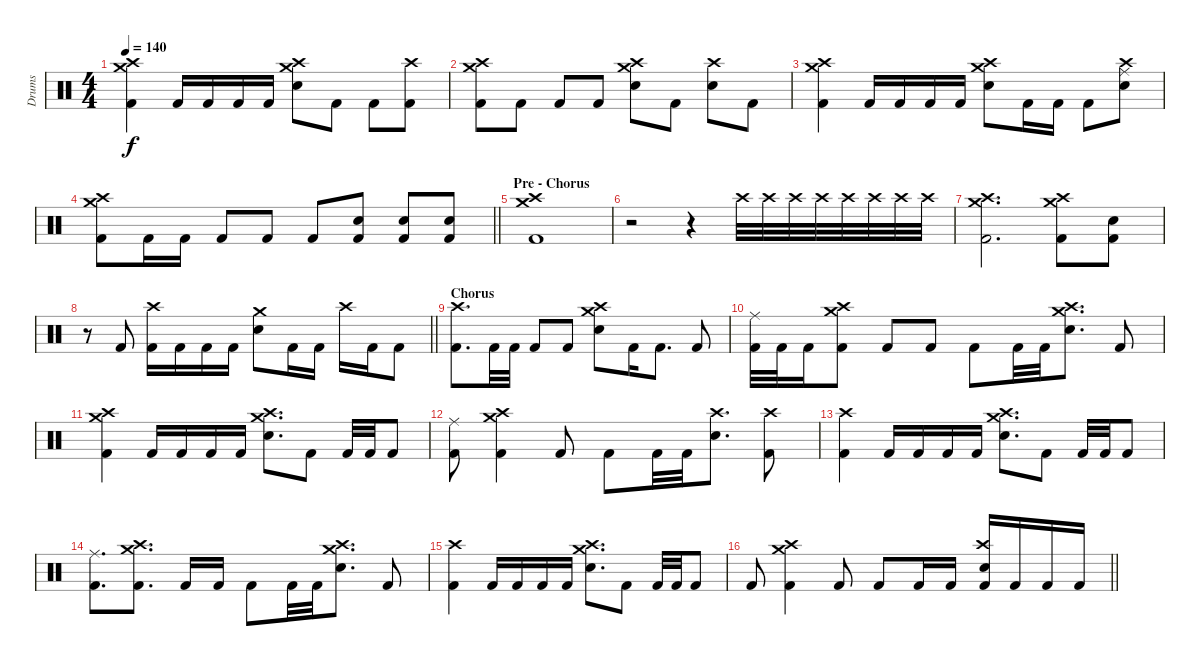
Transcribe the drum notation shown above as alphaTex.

\track ("Drums" "Drums") {instrument percussion}
\staff {score}
\articulation defaults
\ts (4 4)
\tempo 140
\clef neutral
\ks c
("Crash medium (hit)" "Kick (hit) 2" "Crash high (hit)").4{dy f} "Kick (hit) 2".16 "Kick (hit) 2".16 "Kick (hit) 2".16 "Kick (hit) 2".16 ("Crash medium (hit)" "Crash high (hit)" "Electric Snare (hit)").8 "Kick (hit) 2".8 "Kick (hit) 2".8 ("Crash high (hit)" "Kick (hit) 2").8 |
("Crash medium (hit)" "Kick (hit) 2" "Crash high (hit)").8 "Kick (hit) 2".8 "Kick (hit) 2".8 "Kick (hit) 2".8 ("Crash medium (hit)" "Crash high (hit)" "Electric Snare (hit)").8 "Kick (hit) 2".8 ("Crash high (hit)" "Electric Snare (hit)").8 "Kick (hit) 2".8 |
("Crash medium (hit)" "Kick (hit) 2" "Crash high (hit)").4 "Kick (hit) 2".16 "Kick (hit) 2".16 "Kick (hit) 2".16 "Kick (hit) 2".16 ("Crash medium (hit)" "Crash high (hit)" "Electric Snare (hit)").8 "Kick (hit) 2".16 "Kick (hit) 2".16 "Kick (hit) 2".8 ("Ride (middle)" "Crash high (hit)" "Electric Snare (hit)").8 |
\barLineRight lightlight
("Crash medium (hit)" "Crash high (hit)" "Kick (hit) 2").8 "Kick (hit) 2".16 "Kick (hit) 2".16 "Kick (hit) 2".8 "Kick (hit) 2".8 "Kick (hit) 2".8 ("Electric Snare (hit)" "Kick (hit) 2").8 ("Electric Snare (hit)" "Kick (hit) 2").8 ("Electric Snare (hit)" "Kick (hit) 2").8 |
\section ("" "Pre - Chorus")
("Crash medium (hit)" "Crash high (hit)" "Kick (hit) 2").1 |
r.2 r.4 "Crash high (hit)".32 "Crash high (hit)".32 "Crash high (hit)".32 "Crash high (hit)".32 "Crash high (hit)".32 "Crash high (hit)".32 "Crash high (hit)".32 "Crash high (hit)".32 |
("Crash medium (hit)" "Crash high (hit)" "Kick (hit) 2").2{d} ("Crash medium (hit)" "Crash high (hit)" "Kick (hit) 2").8 ("Electric Snare (hit)" "Kick (hit) 2").8 |
\barLineRight lightlight
r.8 "Kick (hit) 2".8 ("Crash high (hit)" "Kick (hit) 2").16 "Kick (hit) 2".16 "Kick (hit) 2".16 "Kick (hit) 2".16 ("Crash medium (hit)" "Electric Snare (hit)").8 "Kick (hit) 2".16 "Kick (hit) 2".16 "Crash high (hit)".16 "Kick (hit) 2".16 "Kick (hit) 2".8 |
\section ("" "Chorus")
("Kick (hit) 2" "Crash high (hit)").8{d} "Kick (hit) 2".32 "Kick (hit) 2".32 "Kick (hit) 2".8 "Kick (hit) 2".8 ("Electric Snare (hit)" "Crash high (hit)" "Crash medium (hit)").8 "Kick (hit) 2".16 "Kick (hit) 2".8{d} "Kick (hit) 2".8 |
("Ride (middle)" "Kick (hit) 2").32 "Kick (hit) 2".32 "Kick (hit) 2".16 ("Kick (hit) 2" "Crash high (hit)" "Crash medium (hit)").8 "Kick (hit) 2".8 "Kick (hit) 2".8 "Kick (hit) 2".8 "Kick (hit) 2".32 "Kick (hit) 2".32 ("Electric Snare (hit)" "Crash high (hit)" "Crash medium (hit)").8{d} "Kick (hit) 2".8 |
("Kick (hit) 2" "Crash high (hit)" "Crash medium (hit)").4 "Kick (hit) 2".16 "Kick (hit) 2".16 "Kick (hit) 2".16 "Kick (hit) 2".16 ("Electric Snare (hit)" "Crash high (hit)" "Crash medium (hit)").8{d} "Kick (hit) 2".8 "Kick (hit) 2".32 "Kick (hit) 2".32 "Kick (hit) 2".8 |
("Kick (hit) 2" "Ride (middle)").8 ("Kick (hit) 2" "Crash high (hit)" "Crash medium (hit)").4 "Kick (hit) 2".8 "Kick (hit) 2".8 "Kick (hit) 2".32 "Kick (hit) 2".32 ("Electric Snare (hit)" "Crash high (hit)").8{d} ("Kick (hit) 2" "Crash high (hit)").8 |
("Kick (hit) 2" "Crash high (hit)").4 "Kick (hit) 2".16 "Kick (hit) 2".16 "Kick (hit) 2".16 "Kick (hit) 2".16 ("Electric Snare (hit)" "Crash high (hit)" "Crash medium (hit)").8{d} "Kick (hit) 2".8 "Kick (hit) 2".32 "Kick (hit) 2".32 "Kick (hit) 2".8 |
("Kick (hit) 2" "Ride (middle)").8{d} ("Kick (hit) 2" "Crash high (hit)" "Crash medium (hit)").8{d} "Kick (hit) 2".16 "Kick (hit) 2".16 "Kick (hit) 2".8 "Kick (hit) 2".32 "Kick (hit) 2".32 ("Electric Snare (hit)" "Crash high (hit)" "Crash medium (hit)").8{d} "Kick (hit) 2".8 |
("Kick (hit) 2" "Crash high (hit)").4 "Kick (hit) 2".16 "Kick (hit) 2".16 "Kick (hit) 2".16 "Kick (hit) 2".16 ("Electric Snare (hit)" "Crash high (hit)" "Crash medium (hit)").8{d} "Kick (hit) 2".8 "Kick (hit) 2".32 "Kick (hit) 2".32 "Kick (hit) 2".8 |
\barLineRight lightlight "Kick (hit) 2".8
("Kick (hit) 2" "Crash high (hit)" "Crash medium (hit)").4 "Kick (hit) 2".8 "Kick (hit) 2".8 "Kick (hit) 2".16 "Kick (hit) 2".16 ("Kick (hit) 2" "Crash high (hit)" "Electric Snare (hit)").16 "Kick (hit) 2".16 "Kick (hit) 2".16 "Kick (hit) 2".16
